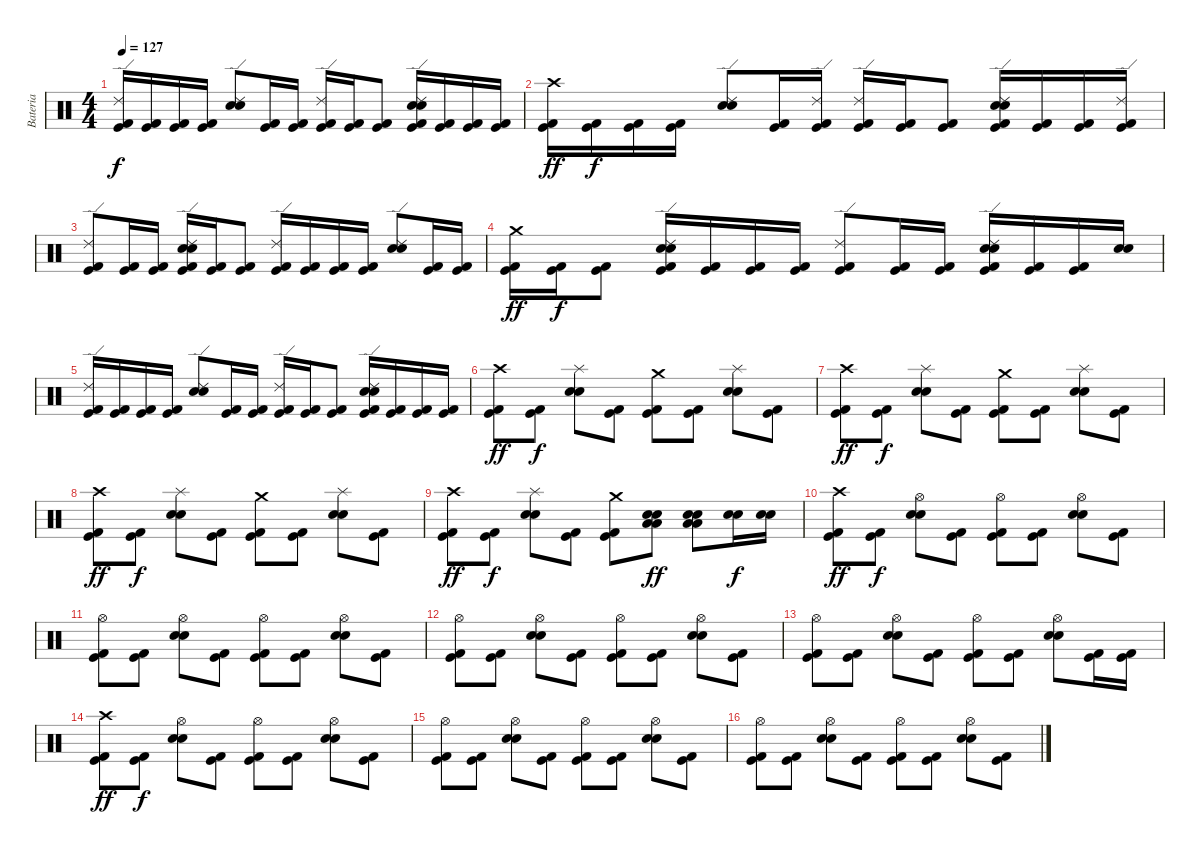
\track ("Bateria" "Bateria") {instrument percussion}
\staff {score}
\articulation defaults
\ts (4 4)
\tempo 127
\clef neutral
\ks c
("Ride (edge) 2" "Kick (hit) 2" "Kick (hit)").16{dy f} ("Kick (hit) 2" "Kick (hit)").16 ("Kick (hit) 2" "Kick (hit)").16 ("Kick (hit) 2" "Kick (hit)").16 ("Ride (edge) 2" "Electric Snare (hit)" "Snare (hit) 2").8 ("Kick (hit) 2" "Kick (hit)").16 ("Kick (hit) 2" "Kick (hit)").16 ("Ride (edge) 2" "Kick (hit) 2" "Kick (hit)").16 ("Kick (hit) 2" "Kick (hit)").16 ("Kick (hit) 2" "Kick (hit)").8 ("Ride (edge) 2" "Electric Snare (hit)" "Snare (hit) 2" "Kick (hit) 2" "Kick (hit)").16 ("Kick (hit) 2" "Kick (hit)").16 ("Kick (hit) 2" "Kick (hit)").16 ("Kick (hit) 2" "Kick (hit)").16 |
("Crash high (hit)" "Kick (hit) 2" "Kick (hit)").16{dy ff} ("Kick (hit) 2" "Kick (hit)").16{dy f} ("Kick (hit) 2" "Kick (hit)").16 ("Kick (hit) 2" "Kick (hit)").16 ("Ride (edge) 2" "Electric Snare (hit)" "Snare (hit) 2").8 ("Kick (hit) 2" "Kick (hit)").16 ("Ride (edge) 2" "Kick (hit) 2" "Kick (hit)").16 ("Ride (edge) 2" "Kick (hit) 2" "Kick (hit)").16 ("Kick (hit) 2" "Kick (hit)").16 ("Kick (hit) 2" "Kick (hit)").8 ("Ride (edge) 2" "Electric Snare (hit)" "Snare (hit) 2" "Kick (hit) 2" "Kick (hit)").16 ("Kick (hit) 2" "Kick (hit)").16 ("Kick (hit) 2" "Kick (hit)").16 ("Ride (edge) 2" "Kick (hit) 2" "Kick (hit)").16 |
("Ride (edge) 2" "Kick (hit) 2" "Kick (hit)").8 ("Kick (hit) 2" "Kick (hit)").16 ("Kick (hit) 2" "Kick (hit)").16 ("Ride (edge) 2" "Electric Snare (hit)" "Snare (hit) 2" "Kick (hit) 2" "Kick (hit)").16 ("Kick (hit) 2" "Kick (hit)").16 ("Kick (hit) 2" "Kick (hit)").8 ("Ride (edge) 2" "Kick (hit) 2" "Kick (hit)").16 ("Kick (hit) 2" "Kick (hit)").16 ("Kick (hit) 2" "Kick (hit)").16 ("Kick (hit) 2" "Kick (hit)").16 ("Ride (edge) 2" "Electric Snare (hit)" "Snare (hit) 2").8 ("Kick (hit) 2" "Kick (hit)").16 ("Kick (hit) 2" "Kick (hit)").16 |
("Crash medium (hit)" "Kick (hit) 2" "Kick (hit)").16{dy ff} ("Kick (hit) 2" "Kick (hit)").16{dy f} ("Kick (hit) 2" "Kick (hit)").8 ("Ride (edge) 2" "Electric Snare (hit)" "Snare (hit) 2" "Kick (hit) 2" "Kick (hit)").16 ("Kick (hit) 2" "Kick (hit)").16 ("Kick (hit) 2" "Kick (hit)").16 ("Kick (hit) 2" "Kick (hit)").16 ("Ride (edge) 2" "Kick (hit) 2" "Kick (hit)").8 ("Kick (hit) 2" "Kick (hit)").16 ("Kick (hit) 2" "Kick (hit)").16 ("Ride (edge) 2" "Electric Snare (hit)" "Snare (hit) 2" "Kick (hit) 2" "Kick (hit)").16 ("Kick (hit) 2" "Kick (hit)").16 ("Kick (hit) 2" "Kick (hit)").16 ("Electric Snare (hit)" "Snare (hit) 2").16 |
("Ride (edge) 2" "Kick (hit) 2" "Kick (hit)").16 ("Kick (hit) 2" "Kick (hit)").16 ("Kick (hit) 2" "Kick (hit)").16 ("Kick (hit) 2" "Kick (hit)").16 ("Ride (edge) 2" "Electric Snare (hit)" "Snare (hit) 2").8 ("Kick (hit) 2" "Kick (hit)").16 ("Kick (hit) 2" "Kick (hit)").16 ("Ride (edge) 2" "Kick (hit) 2" "Kick (hit)").16 ("Kick (hit) 2" "Kick (hit)").16 ("Kick (hit) 2" "Kick (hit)").8 ("Ride (edge) 2" "Electric Snare (hit)" "Snare (hit) 2" "Kick (hit) 2" "Kick (hit)").16 ("Kick (hit) 2" "Kick (hit)").16 ("Kick (hit) 2" "Kick (hit)").16 ("Kick (hit) 2" "Kick (hit)").16 |
("Crash high (hit)" "Kick (hit) 2" "Kick (hit)").8{dy ff} ("Kick (hit) 2" "Kick (hit)").8{dy f} ("Splash (hit)" "Electric Snare (hit)" "Snare (hit) 2").8 ("Kick (hit) 2" "Kick (hit)").8 ("Crash medium (hit)" "Kick (hit) 2" "Kick (hit)").8 ("Kick (hit) 2" "Kick (hit)").8 ("Splash (hit)" "Electric Snare (hit)" "Snare (hit) 2").8 ("Kick (hit) 2" "Kick (hit)").8 |
("Crash high (hit)" "Kick (hit) 2" "Kick (hit)").8{dy ff} ("Kick (hit) 2" "Kick (hit)").8{dy f} ("Splash (hit)" "Electric Snare (hit)" "Snare (hit) 2").8 ("Kick (hit) 2" "Kick (hit)").8 ("Crash medium (hit)" "Kick (hit) 2" "Kick (hit)").8 ("Kick (hit) 2" "Kick (hit)").8 ("Splash (hit)" "Electric Snare (hit)" "Snare (hit) 2").8 ("Kick (hit) 2" "Kick (hit)").8 |
("Crash high (hit)" "Kick (hit) 2" "Kick (hit)").8{dy ff} ("Kick (hit) 2" "Kick (hit)").8{dy f} ("Splash (hit)" "Electric Snare (hit)" "Snare (hit) 2").8 ("Kick (hit) 2" "Kick (hit)").8 ("Crash medium (hit)" "Kick (hit) 2" "Kick (hit)").8 ("Kick (hit) 2" "Kick (hit)").8 ("Splash (hit)" "Electric Snare (hit)" "Snare (hit) 2").8 ("Kick (hit) 2" "Kick (hit)").8 |
("Crash high (hit)" "Kick (hit) 2" "Kick (hit)").8{dy ff} ("Kick (hit) 2" "Kick (hit)").8{dy f} ("Splash (hit)" "Electric Snare (hit)" "Snare (hit) 2").8 ("Kick (hit) 2" "Kick (hit)").8 ("Crash medium (hit)" "Kick (hit) 2" "Kick (hit)").8 ("Low Tom (hit)" "Low Floor Tom (hit)" "Electric Snare (hit)" "Snare (hit) 2").8{dy ff} ("Low Tom (hit)" "Low Floor Tom (hit)" "Electric Snare (hit)" "Snare (hit) 2").8 ("Electric Snare (hit)" "Snare (hit) 2").16{dy f} ("Electric Snare (hit)" "Snare (hit) 2").16 |
("Crash high (hit)" "Kick (hit) 2" "Kick (hit)").8{dy ff} ("Kick (hit) 2" "Kick (hit)").8{dy f} ("Hi-Hat (open)" "Electric Snare (hit)" "Snare (hit) 2").8 ("Kick (hit) 2" "Kick (hit)").8 ("Hi-Hat (open)" "Kick (hit) 2" "Kick (hit)").8 ("Kick (hit) 2" "Kick (hit)").8 ("Hi-Hat (open)" "Electric Snare (hit)" "Snare (hit) 2").8 ("Kick (hit) 2" "Kick (hit)").8 |
("Hi-Hat (open)" "Kick (hit) 2" "Kick (hit)").8 ("Kick (hit) 2" "Kick (hit)").8 ("Hi-Hat (open)" "Electric Snare (hit)" "Snare (hit) 2").8 ("Kick (hit) 2" "Kick (hit)").8 ("Hi-Hat (open)" "Kick (hit) 2" "Kick (hit)").8 ("Kick (hit) 2" "Kick (hit)").8 ("Hi-Hat (open)" "Electric Snare (hit)" "Snare (hit) 2").8 ("Kick (hit) 2" "Kick (hit)").8 |
("Hi-Hat (open)" "Kick (hit) 2" "Kick (hit)").8 ("Kick (hit) 2" "Kick (hit)").8 ("Hi-Hat (open)" "Electric Snare (hit)" "Snare (hit) 2").8 ("Kick (hit) 2" "Kick (hit)").8 ("Hi-Hat (open)" "Kick (hit) 2" "Kick (hit)").8 ("Kick (hit) 2" "Kick (hit)").8 ("Hi-Hat (open)" "Electric Snare (hit)" "Snare (hit) 2").8 ("Kick (hit) 2" "Kick (hit)").8 |
("Hi-Hat (open)" "Kick (hit) 2" "Kick (hit)").8 ("Kick (hit) 2" "Kick (hit)").8 ("Hi-Hat (open)" "Electric Snare (hit)" "Snare (hit) 2").8 ("Kick (hit) 2" "Kick (hit)").8 ("Hi-Hat (open)" "Kick (hit) 2" "Kick (hit)").8 ("Kick (hit) 2" "Kick (hit)").8 ("Hi-Hat (open)" "Electric Snare (hit)" "Snare (hit) 2").8 ("Kick (hit) 2" "Kick (hit)").16 ("Kick (hit) 2" "Kick (hit)").16 |
("Crash high (hit)" "Kick (hit) 2" "Kick (hit)").8{dy ff} ("Kick (hit) 2" "Kick (hit)").8{dy f} ("Hi-Hat (open)" "Electric Snare (hit)" "Snare (hit) 2").8 ("Kick (hit) 2" "Kick (hit)").8 ("Hi-Hat (open)" "Kick (hit) 2" "Kick (hit)").8 ("Kick (hit) 2" "Kick (hit)").8 ("Hi-Hat (open)" "Electric Snare (hit)" "Snare (hit) 2").8 ("Kick (hit) 2" "Kick (hit)").8 |
("Hi-Hat (open)" "Kick (hit) 2" "Kick (hit)").8 ("Kick (hit) 2" "Kick (hit)").8 ("Hi-Hat (open)" "Electric Snare (hit)" "Snare (hit) 2").8 ("Kick (hit) 2" "Kick (hit)").8 ("Hi-Hat (open)" "Kick (hit) 2" "Kick (hit)").8 ("Kick (hit) 2" "Kick (hit)").8 ("Hi-Hat (open)" "Electric Snare (hit)" "Snare (hit) 2").8 ("Kick (hit) 2" "Kick (hit)").8 |
("Hi-Hat (open)" "Kick (hit) 2" "Kick (hit)").8 ("Kick (hit) 2" "Kick (hit)").8 ("Hi-Hat (open)" "Electric Snare (hit)" "Snare (hit) 2").8 ("Kick (hit) 2" "Kick (hit)").8 ("Hi-Hat (open)" "Kick (hit) 2" "Kick (hit)").8 ("Kick (hit) 2" "Kick (hit)").8 ("Hi-Hat (open)" "Electric Snare (hit)" "Snare (hit) 2").8 ("Kick (hit) 2" "Kick (hit)").8
